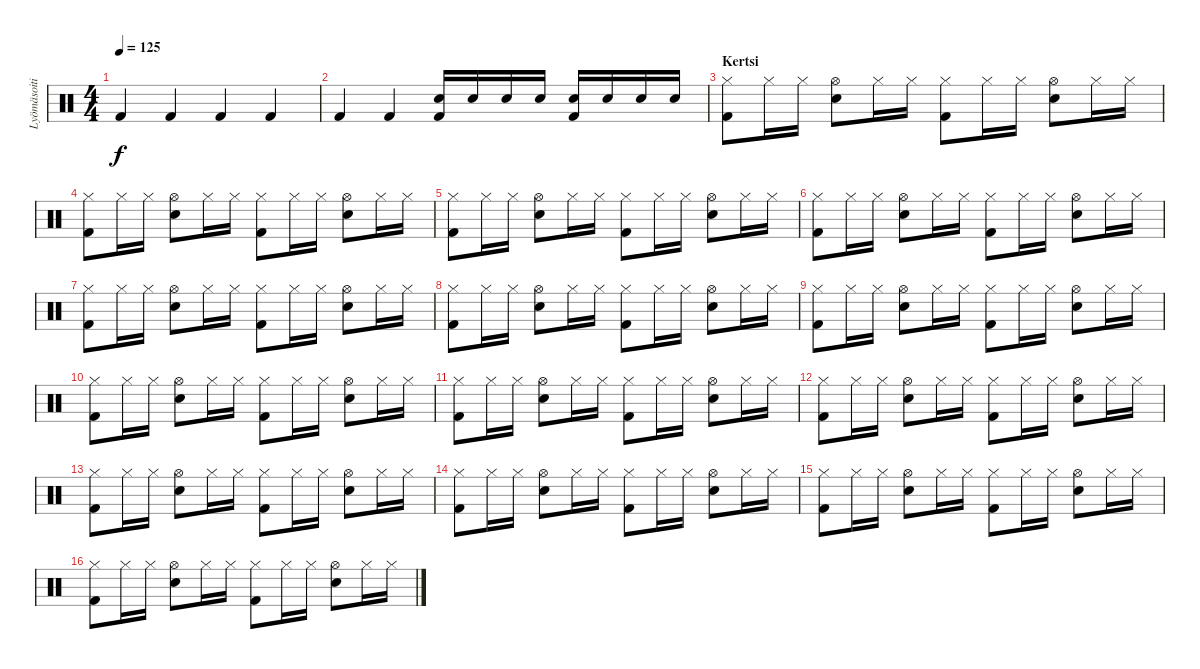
\track ("Lyömäsoitin" "Lyömäsoiti") {instrument percussion}
\staff {score}
\articulation defaults
\ts (4 4)
\tempo 125
\clef neutral
\ks c "Kick (hit) 2".4{dy f} "Kick (hit) 2".4 "Kick (hit) 2".4 "Kick (hit) 2".4
|
"Kick (hit) 2".4 "Kick (hit) 2".4 ("Snare (hit) 2" "Kick (hit) 2").16 "Snare (hit) 2".16 "Snare (hit) 2".16 "Snare (hit) 2".16 ("Snare (hit) 2" "Kick (hit) 2").16 "Snare (hit) 2".16 "Snare (hit) 2".16 "Snare (hit) 2".16 |
\section ("" "Kertsi")
("Hi-Hat (closed)" "Kick (hit) 2").8 "Hi-Hat (closed)".16 "Hi-Hat (closed)".16 ("Hi-Hat (open)" "Snare (hit) 2").8 "Hi-Hat (closed)".16 "Hi-Hat (closed)".16 ("Hi-Hat (closed)" "Kick (hit) 2").8 "Hi-Hat (closed)".16 "Hi-Hat (closed)".16 ("Hi-Hat (open)" "Snare (hit) 2").8 "Hi-Hat (closed)".16 "Hi-Hat (closed)".16 |
("Hi-Hat (closed)" "Kick (hit) 2").8 "Hi-Hat (closed)".16 "Hi-Hat (closed)".16 ("Hi-Hat (open)" "Snare (hit) 2").8 "Hi-Hat (closed)".16 "Hi-Hat (closed)".16 ("Hi-Hat (closed)" "Kick (hit) 2").8 "Hi-Hat (closed)".16 "Hi-Hat (closed)".16 ("Hi-Hat (open)" "Snare (hit) 2").8 "Hi-Hat (closed)".16 "Hi-Hat (closed)".16 |
("Hi-Hat (closed)" "Kick (hit) 2").8 "Hi-Hat (closed)".16 "Hi-Hat (closed)".16 ("Hi-Hat (open)" "Snare (hit) 2").8 "Hi-Hat (closed)".16 "Hi-Hat (closed)".16 ("Hi-Hat (closed)" "Kick (hit) 2").8 "Hi-Hat (closed)".16 "Hi-Hat (closed)".16 ("Hi-Hat (open)" "Snare (hit) 2").8 "Hi-Hat (closed)".16 "Hi-Hat (closed)".16 |
("Hi-Hat (closed)" "Kick (hit) 2").8 "Hi-Hat (closed)".16 "Hi-Hat (closed)".16 ("Hi-Hat (open)" "Snare (hit) 2").8 "Hi-Hat (closed)".16 "Hi-Hat (closed)".16 ("Hi-Hat (closed)" "Kick (hit) 2").8 "Hi-Hat (closed)".16 "Hi-Hat (closed)".16 ("Hi-Hat (open)" "Snare (hit) 2").8 "Hi-Hat (closed)".16 "Hi-Hat (closed)".16 |
("Hi-Hat (closed)" "Kick (hit) 2").8 "Hi-Hat (closed)".16 "Hi-Hat (closed)".16 ("Hi-Hat (open)" "Snare (hit) 2").8 "Hi-Hat (closed)".16 "Hi-Hat (closed)".16 ("Hi-Hat (closed)" "Kick (hit) 2").8 "Hi-Hat (closed)".16 "Hi-Hat (closed)".16 ("Hi-Hat (open)" "Snare (hit) 2").8 "Hi-Hat (closed)".16 "Hi-Hat (closed)".16 |
("Hi-Hat (closed)" "Kick (hit) 2").8 "Hi-Hat (closed)".16 "Hi-Hat (closed)".16 ("Hi-Hat (open)" "Snare (hit) 2").8 "Hi-Hat (closed)".16 "Hi-Hat (closed)".16 ("Hi-Hat (closed)" "Kick (hit) 2").8 "Hi-Hat (closed)".16 "Hi-Hat (closed)".16 ("Hi-Hat (open)" "Snare (hit) 2").8 "Hi-Hat (closed)".16 "Hi-Hat (closed)".16 |
("Hi-Hat (closed)" "Kick (hit) 2").8 "Hi-Hat (closed)".16 "Hi-Hat (closed)".16 ("Hi-Hat (open)" "Snare (hit) 2").8 "Hi-Hat (closed)".16 "Hi-Hat (closed)".16 ("Hi-Hat (closed)" "Kick (hit) 2").8 "Hi-Hat (closed)".16 "Hi-Hat (closed)".16 ("Hi-Hat (open)" "Snare (hit) 2").8 "Hi-Hat (closed)".16 "Hi-Hat (closed)".16 |
("Hi-Hat (closed)" "Kick (hit) 2").8 "Hi-Hat (closed)".16 "Hi-Hat (closed)".16 ("Hi-Hat (open)" "Snare (hit) 2").8 "Hi-Hat (closed)".16 "Hi-Hat (closed)".16 ("Hi-Hat (closed)" "Kick (hit) 2").8 "Hi-Hat (closed)".16 "Hi-Hat (closed)".16 ("Hi-Hat (open)" "Snare (hit) 2").8 "Hi-Hat (closed)".16 "Hi-Hat (closed)".16 |
("Hi-Hat (closed)" "Kick (hit) 2").8 "Hi-Hat (closed)".16 "Hi-Hat (closed)".16 ("Hi-Hat (open)" "Snare (hit) 2").8 "Hi-Hat (closed)".16 "Hi-Hat (closed)".16 ("Hi-Hat (closed)" "Kick (hit) 2").8 "Hi-Hat (closed)".16 "Hi-Hat (closed)".16 ("Hi-Hat (open)" "Snare (hit) 2").8 "Hi-Hat (closed)".16 "Hi-Hat (closed)".16 |
("Hi-Hat (closed)" "Kick (hit) 2").8 "Hi-Hat (closed)".16 "Hi-Hat (closed)".16 ("Hi-Hat (open)" "Snare (hit) 2").8 "Hi-Hat (closed)".16 "Hi-Hat (closed)".16 ("Hi-Hat (closed)" "Kick (hit) 2").8 "Hi-Hat (closed)".16 "Hi-Hat (closed)".16 ("Hi-Hat (open)" "Snare (hit) 2").8 "Hi-Hat (closed)".16 "Hi-Hat (closed)".16 |
("Hi-Hat (closed)" "Kick (hit) 2").8 "Hi-Hat (closed)".16 "Hi-Hat (closed)".16 ("Hi-Hat (open)" "Snare (hit) 2").8 "Hi-Hat (closed)".16 "Hi-Hat (closed)".16 ("Hi-Hat (closed)" "Kick (hit) 2").8 "Hi-Hat (closed)".16 "Hi-Hat (closed)".16 ("Hi-Hat (open)" "Snare (hit) 2").8 "Hi-Hat (closed)".16 "Hi-Hat (closed)".16 |
("Hi-Hat (closed)" "Kick (hit) 2").8 "Hi-Hat (closed)".16 "Hi-Hat (closed)".16 ("Hi-Hat (open)" "Snare (hit) 2").8 "Hi-Hat (closed)".16 "Hi-Hat (closed)".16 ("Hi-Hat (closed)" "Kick (hit) 2").8 "Hi-Hat (closed)".16 "Hi-Hat (closed)".16 ("Hi-Hat (open)" "Snare (hit) 2").8 "Hi-Hat (closed)".16 "Hi-Hat (closed)".16 |
("Hi-Hat (closed)" "Kick (hit) 2").8 "Hi-Hat (closed)".16 "Hi-Hat (closed)".16 ("Hi-Hat (open)" "Snare (hit) 2").8 "Hi-Hat (closed)".16 "Hi-Hat (closed)".16 ("Hi-Hat (closed)" "Kick (hit) 2").8 "Hi-Hat (closed)".16 "Hi-Hat (closed)".16 ("Hi-Hat (open)" "Snare (hit) 2").8 "Hi-Hat (closed)".16 "Hi-Hat (closed)".16 |
("Hi-Hat (closed)" "Kick (hit) 2").8 "Hi-Hat (closed)".16 "Hi-Hat (closed)".16 ("Hi-Hat (open)" "Snare (hit) 2").8 "Hi-Hat (closed)".16 "Hi-Hat (closed)".16 ("Hi-Hat (closed)" "Kick (hit) 2").8 "Hi-Hat (closed)".16 "Hi-Hat (closed)".16 ("Hi-Hat (open)" "Snare (hit) 2").8 "Hi-Hat (closed)".16 "Hi-Hat (closed)".16
